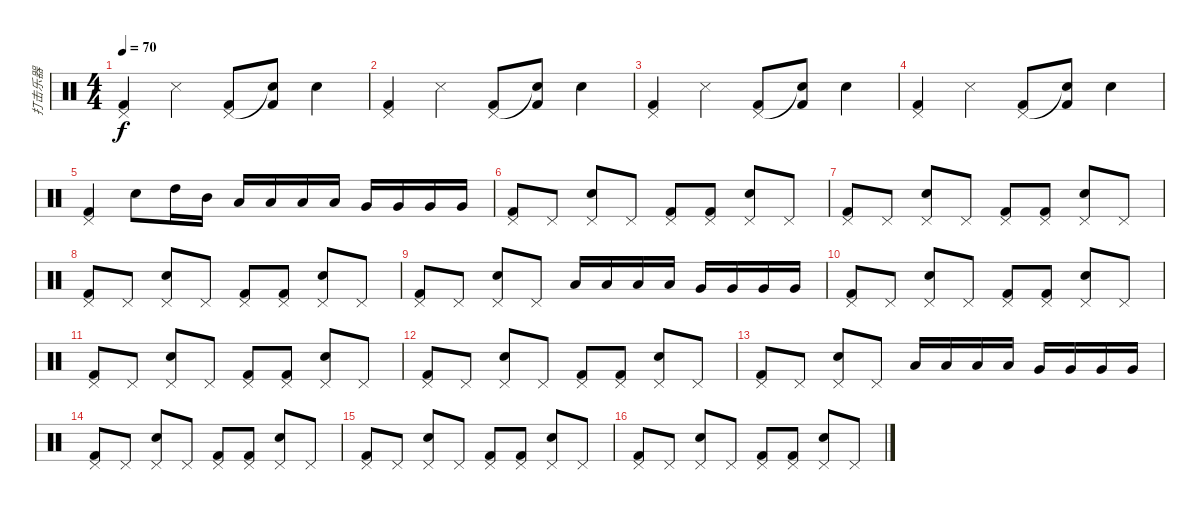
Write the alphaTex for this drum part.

\track ("打击乐器" "打击乐器") {instrument percussion}
\staff {score}
\articulation defaults
\ts (4 4)
\tempo 70
\clef neutral
\ks c
("Pedal Hi-Hat (hit)" "Kick (hit) 2").4{dy f} "Snare (side stick) 3".4 ("Pedal Hi-Hat (hit)" "Kick (hit) 2").8 ("Snare (hit)"{t} "Kick (hit) 2").8 "Electric Snare (hit)".4 |
("Pedal Hi-Hat (hit)" "Kick (hit) 2").4 "Snare (side stick) 3".4 ("Pedal Hi-Hat (hit)" "Kick (hit) 2").8 ("Snare (hit)"{t} "Kick (hit) 2").8 "Electric Snare (hit)".4 |
("Pedal Hi-Hat (hit)" "Kick (hit) 2").4 "Snare (side stick) 3".4 ("Pedal Hi-Hat (hit)" "Kick (hit) 2").8 ("Snare (hit)"{t} "Kick (hit) 2").8 "Electric Snare (hit)".4 |
("Pedal Hi-Hat (hit)" "Kick (hit) 2").4 "Snare (side stick) 3".4 ("Pedal Hi-Hat (hit)" "Kick (hit) 2").8 ("Snare (hit)"{t} "Kick (hit) 2").8 "Electric Snare (hit)".4 |
("Pedal Hi-Hat (hit)" "Kick (hit) 2").4 "Electric Snare (hit)".8 "High Tom (hit)".16 "Mid Tom (hit)".16 "Low Tom (hit)".16 "Low Tom (hit)".16 "Low Tom (hit)".16 "Low Tom (hit)".16 "Very Low Tom (hit)".16 "Very Low Tom (hit)".16 "Very Low Tom (hit)".16 "Very Low Tom (hit)".16 |
("Pedal Hi-Hat (hit)" "Kick (hit) 2").8 "Pedal Hi-Hat (hit)".8 ("Pedal Hi-Hat (hit)" "Electric Snare (hit)").8 "Pedal Hi-Hat (hit)".8 ("Pedal Hi-Hat (hit)" "Kick (hit) 2").8 ("Pedal Hi-Hat (hit)" "Kick (hit) 2").8 ("Pedal Hi-Hat (hit)" "Electric Snare (hit)").8 "Pedal Hi-Hat (hit)".8 |
("Pedal Hi-Hat (hit)" "Kick (hit) 2").8 "Pedal Hi-Hat (hit)".8 ("Pedal Hi-Hat (hit)" "Electric Snare (hit)").8 "Pedal Hi-Hat (hit)".8 ("Pedal Hi-Hat (hit)" "Kick (hit) 2").8 ("Pedal Hi-Hat (hit)" "Kick (hit) 2").8 ("Pedal Hi-Hat (hit)" "Electric Snare (hit)").8 "Pedal Hi-Hat (hit)".8 |
("Pedal Hi-Hat (hit)" "Kick (hit) 2").8 "Pedal Hi-Hat (hit)".8 ("Pedal Hi-Hat (hit)" "Electric Snare (hit)").8 "Pedal Hi-Hat (hit)".8 ("Pedal Hi-Hat (hit)" "Kick (hit) 2").8 ("Pedal Hi-Hat (hit)" "Kick (hit) 2").8 ("Pedal Hi-Hat (hit)" "Electric Snare (hit)").8 "Pedal Hi-Hat (hit)".8 |
("Pedal Hi-Hat (hit)" "Kick (hit) 2").8 "Pedal Hi-Hat (hit)".8 ("Pedal Hi-Hat (hit)" "Electric Snare (hit)").8 "Pedal Hi-Hat (hit)".8 "Low Tom (hit)".16 "Low Tom (hit)".16 "Low Tom (hit)".16 "Low Tom (hit)".16 "Very Low Tom (hit)".16 "Very Low Tom (hit)".16 "Very Low Tom (hit)".16 "Very Low Tom (hit)".16 |
("Pedal Hi-Hat (hit)" "Kick (hit) 2").8 "Pedal Hi-Hat (hit)".8 ("Pedal Hi-Hat (hit)" "Electric Snare (hit)").8 "Pedal Hi-Hat (hit)".8 ("Pedal Hi-Hat (hit)" "Kick (hit) 2").8 ("Pedal Hi-Hat (hit)" "Kick (hit) 2").8 ("Pedal Hi-Hat (hit)" "Electric Snare (hit)").8 "Pedal Hi-Hat (hit)".8 |
("Pedal Hi-Hat (hit)" "Kick (hit) 2").8 "Pedal Hi-Hat (hit)".8 ("Pedal Hi-Hat (hit)" "Electric Snare (hit)").8 "Pedal Hi-Hat (hit)".8 ("Pedal Hi-Hat (hit)" "Kick (hit) 2").8 ("Pedal Hi-Hat (hit)" "Kick (hit) 2").8 ("Pedal Hi-Hat (hit)" "Electric Snare (hit)").8 "Pedal Hi-Hat (hit)".8 |
("Pedal Hi-Hat (hit)" "Kick (hit) 2").8 "Pedal Hi-Hat (hit)".8 ("Pedal Hi-Hat (hit)" "Electric Snare (hit)").8 "Pedal Hi-Hat (hit)".8 ("Pedal Hi-Hat (hit)" "Kick (hit) 2").8 ("Pedal Hi-Hat (hit)" "Kick (hit) 2").8 ("Pedal Hi-Hat (hit)" "Electric Snare (hit)").8 "Pedal Hi-Hat (hit)".8 |
("Pedal Hi-Hat (hit)" "Kick (hit) 2").8 "Pedal Hi-Hat (hit)".8 ("Pedal Hi-Hat (hit)" "Electric Snare (hit)").8 "Pedal Hi-Hat (hit)".8 "Low Tom (hit)".16 "Low Tom (hit)".16 "Low Tom (hit)".16 "Low Tom (hit)".16 "Very Low Tom (hit)".16 "Very Low Tom (hit)".16 "Very Low Tom (hit)".16 "Very Low Tom (hit)".16 |
("Pedal Hi-Hat (hit)" "Kick (hit) 2").8 "Pedal Hi-Hat (hit)".8 ("Pedal Hi-Hat (hit)" "Electric Snare (hit)").8 "Pedal Hi-Hat (hit)".8 ("Pedal Hi-Hat (hit)" "Kick (hit) 2").8 ("Pedal Hi-Hat (hit)" "Kick (hit) 2").8 ("Pedal Hi-Hat (hit)" "Electric Snare (hit)").8 "Pedal Hi-Hat (hit)".8 |
("Pedal Hi-Hat (hit)" "Kick (hit) 2").8 "Pedal Hi-Hat (hit)".8 ("Pedal Hi-Hat (hit)" "Electric Snare (hit)").8 "Pedal Hi-Hat (hit)".8 ("Pedal Hi-Hat (hit)" "Kick (hit) 2").8 ("Pedal Hi-Hat (hit)" "Kick (hit) 2").8 ("Pedal Hi-Hat (hit)" "Electric Snare (hit)").8 "Pedal Hi-Hat (hit)".8 |
("Pedal Hi-Hat (hit)" "Kick (hit) 2").8 "Pedal Hi-Hat (hit)".8 ("Pedal Hi-Hat (hit)" "Electric Snare (hit)").8 "Pedal Hi-Hat (hit)".8 ("Pedal Hi-Hat (hit)" "Kick (hit) 2").8 ("Pedal Hi-Hat (hit)" "Kick (hit) 2").8 ("Pedal Hi-Hat (hit)" "Electric Snare (hit)").8 "Pedal Hi-Hat (hit)".8
